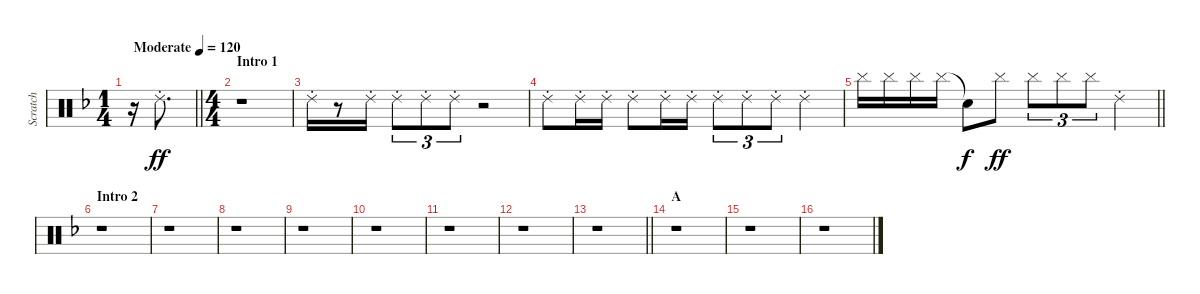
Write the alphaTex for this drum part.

\track ("Scratch" "Scratch") {instrument percussion}
\staff {score}
\articulation defaults
\ts (1 4)
\tempo (120 "Moderate")
\clef neutral
\barLineRight lightlight
\ks f
r.16{dy ff} "Ride (choke) 2".8{d} |
\ts (4 4)
\section ("" "Intro 1")
r.1 |
"Ride (choke) 2".16 r.8 "Ride (choke) 2".16 "Ride (choke) 2".8{tu (3 2)} "Ride (choke) 2".8{tu (3 2)} "Ride (choke) 2".8{tu (3 2)} r.2 |
"Ride (choke) 2".8 "Ride (choke) 2".16 "Ride (choke) 2".16 "Ride (choke) 2".8 "Ride (choke) 2".16 "Ride (choke) 2".16 "Ride (choke) 2".8{tu (3 2)} "Ride (choke) 2".8{tu (3 2)} "Ride (choke) 2".8{tu (3 2)} "Ride (choke) 2".4 |
\barLineRight lightlight "Cymbal (hit)".16 "Cymbal (hit)".16 "Cymbal (hit)".16 "Cymbal (hit)".16 "Snare (hit)"{t}.8{dy f} "Cymbal (hit)".8{dy ff} "Cymbal (hit)".8{tu (3 2)} "Cymbal (hit)".8{tu (3 2)} "Cymbal (hit)".8{tu (3 2)} "Ride (choke) 2".4
|
\section ("" "Intro 2")
r.1 |
r.1 |
r.1 |
r.1 |
r.1 |
r.1 |
r.1 |
\barLineRight lightlight
r.1 |
\section ("" "A")
r.1 |
r.1 |
r.1
